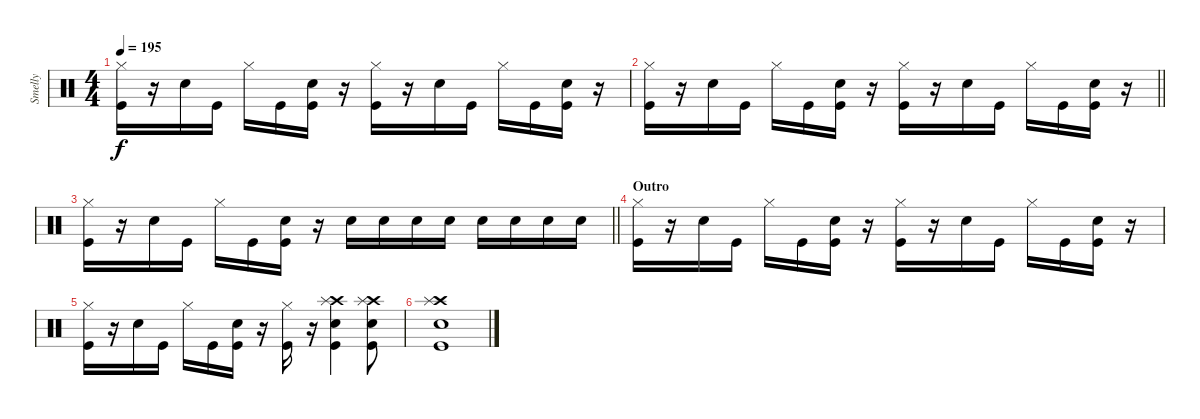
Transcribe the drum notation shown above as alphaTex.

\track ("Smelly" "Smelly") {instrument percussion}
\staff {score}
\articulation defaults
\ts (4 4)
\tempo 195
\clef neutral
\ks c
("Hi-Hat (closed)" "Kick (hit)").16{dy f} r.16 "Snare (hit) 2".16 "Kick (hit)".16 "Hi-Hat (closed)".16 "Kick (hit)".16 ("Snare (hit) 2" "Kick (hit)").16 r.16 ("Hi-Hat (closed)" "Kick (hit)").16 r.16 "Snare (hit) 2".16 "Kick (hit)".16 "Hi-Hat (closed)".16 "Kick (hit)".16 ("Snare (hit) 2" "Kick (hit)").16 r.16 |
\barLineRight lightlight
("Hi-Hat (closed)" "Kick (hit)").16 r.16 "Snare (hit) 2".16 "Kick (hit)".16 "Hi-Hat (closed)".16 "Kick (hit)".16 ("Snare (hit) 2" "Kick (hit)").16 r.16 ("Hi-Hat (closed)" "Kick (hit)").16 r.16 "Snare (hit) 2".16 "Kick (hit)".16 "Hi-Hat (closed)".16 "Kick (hit)".16 ("Snare (hit) 2" "Kick (hit)").16 r.16 |
\barLineRight lightlight
("Hi-Hat (closed)" "Kick (hit)").16 r.16 "Snare (hit) 2".16 "Kick (hit)".16 "Hi-Hat (closed)".16 "Kick (hit)".16 ("Snare (hit) 2" "Kick (hit)").16 r.16 "Snare (hit) 2".16 "Snare (hit) 2".16 "Snare (hit) 2".16 "Snare (hit) 2".16 "Snare (hit) 2".16 "Snare (hit) 2".16 "Snare (hit) 2".16 "Snare (hit) 2".16 |
\section ("" "Outro")
("Hi-Hat (closed)" "Kick (hit)").16 r.16 "Snare (hit) 2".16 "Kick (hit)".16 "Hi-Hat (closed)".16 "Kick (hit)".16 ("Snare (hit) 2" "Kick (hit)").16 r.16 ("Hi-Hat (closed)" "Kick (hit)").16 r.16 "Snare (hit) 2".16 "Kick (hit)".16 "Hi-Hat (closed)".16 "Kick (hit)".16 ("Snare (hit) 2" "Kick (hit)").16 r.16 |
("Hi-Hat (closed)" "Kick (hit)").16 r.16 "Snare (hit) 2".16 "Kick (hit)".16 "Hi-Hat (closed)".16 "Kick (hit)".16 ("Snare (hit) 2" "Kick (hit)").16 r.16 ("Hi-Hat (closed)" "Kick (hit)").16 r.16 ("Crash high (hit)" "Splash (hit)" "Snare (hit) 2" "Kick (hit)").4 ("Crash high (hit)" "Splash (hit)" "Snare (hit) 2" "Kick (hit)").8 |
("Crash high (hit)" "Splash (hit)" "Snare (hit) 2" "Kick (hit)").1
